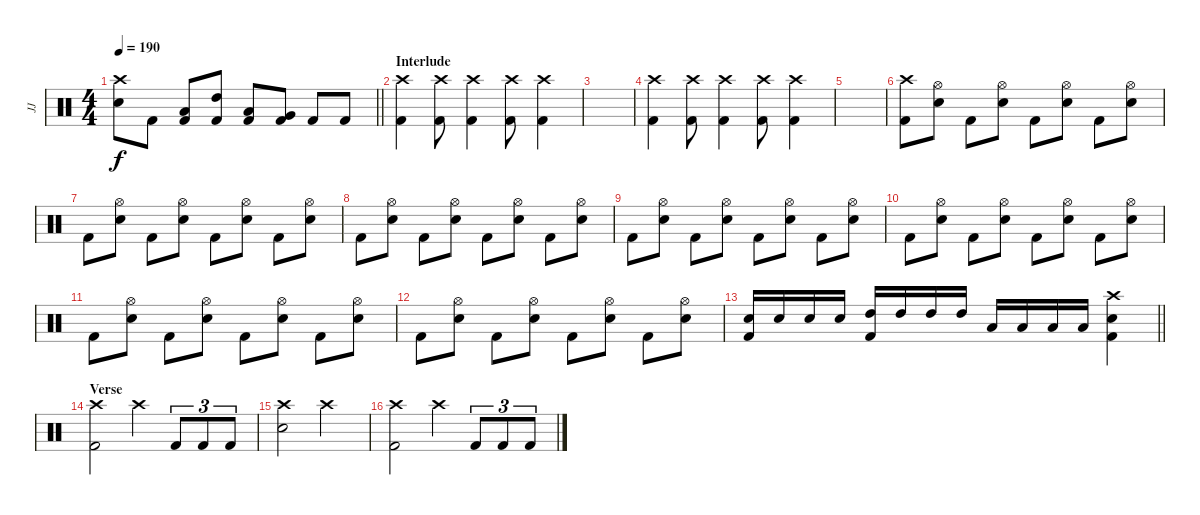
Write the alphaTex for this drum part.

\track ("JJ" "JJ") {instrument percussion}
\staff {score}
\articulation defaults
\ts (4 4)
\tempo 190
\clef neutral
\barLineRight lightlight
\ks c
("Crash high (hit)" "Electric Snare (hit)").8{dy f} "Kick (hit) 2".8 ("Low Floor Tom (hit)" "Kick (hit) 2").8 ("High Tom (hit)" "Kick (hit) 2").8 ("Low Floor Tom (hit)" "Kick (hit) 2").8 ("Very Low Tom (hit)" "Kick (hit) 2").8 "Kick (hit) 2".8 "Kick (hit) 2".8 |
\section ("" "Interlude")
("Crash high (hit)" "Kick (hit) 2").4 ("Crash high (hit)" "Kick (hit) 2").8 ("Crash high (hit)" "Kick (hit) 2").4 ("Crash high (hit)" "Kick (hit) 2").8 ("Crash high (hit)" "Kick (hit) 2").4 |
|
("Crash high (hit)" "Kick (hit) 2").4 ("Crash high (hit)" "Kick (hit) 2").8 ("Crash high (hit)" "Kick (hit) 2").4 ("Crash high (hit)" "Kick (hit) 2").8 ("Crash high (hit)" "Kick (hit) 2").4 |
|
("Crash high (hit)" "Kick (hit) 2").8 ("Hi-Hat (open)" "Electric Snare (hit)").8 "Kick (hit) 2".8 ("Hi-Hat (open)" "Electric Snare (hit)").8 "Kick (hit) 2".8 ("Hi-Hat (open)" "Electric Snare (hit)").8 "Kick (hit) 2".8 ("Hi-Hat (open)" "Electric Snare (hit)").8 |
"Kick (hit) 2".8 ("Hi-Hat (open)" "Electric Snare (hit)").8 "Kick (hit) 2".8 ("Hi-Hat (open)" "Electric Snare (hit)").8 "Kick (hit) 2".8 ("Hi-Hat (open)" "Electric Snare (hit)").8 "Kick (hit) 2".8 ("Hi-Hat (open)" "Electric Snare (hit)").8 |
"Kick (hit) 2".8 ("Hi-Hat (open)" "Electric Snare (hit)").8 "Kick (hit) 2".8 ("Hi-Hat (open)" "Electric Snare (hit)").8 "Kick (hit) 2".8 ("Hi-Hat (open)" "Electric Snare (hit)").8 "Kick (hit) 2".8 ("Hi-Hat (open)" "Electric Snare (hit)").8 |
"Kick (hit) 2".8 ("Hi-Hat (open)" "Electric Snare (hit)").8 "Kick (hit) 2".8 ("Hi-Hat (open)" "Electric Snare (hit)").8 "Kick (hit) 2".8 ("Hi-Hat (open)" "Electric Snare (hit)").8 "Kick (hit) 2".8 ("Hi-Hat (open)" "Electric Snare (hit)").8 |
"Kick (hit) 2".8 ("Hi-Hat (open)" "Electric Snare (hit)").8 "Kick (hit) 2".8 ("Hi-Hat (open)" "Electric Snare (hit)").8 "Kick (hit) 2".8 ("Hi-Hat (open)" "Electric Snare (hit)").8 "Kick (hit) 2".8 ("Hi-Hat (open)" "Electric Snare (hit)").8 |
"Kick (hit) 2".8 ("Hi-Hat (open)" "Electric Snare (hit)").8 "Kick (hit) 2".8 ("Hi-Hat (open)" "Electric Snare (hit)").8 "Kick (hit) 2".8 ("Hi-Hat (open)" "Electric Snare (hit)").8 "Kick (hit) 2".8 ("Hi-Hat (open)" "Electric Snare (hit)").8 |
"Kick (hit) 2".8 ("Hi-Hat (open)" "Electric Snare (hit)").8 "Kick (hit) 2".8 ("Hi-Hat (open)" "Electric Snare (hit)").8 "Kick (hit) 2".8 ("Hi-Hat (open)" "Electric Snare (hit)").8 "Kick (hit) 2".8 ("Hi-Hat (open)" "Electric Snare (hit)").8 |
\barLineRight lightlight
("Electric Snare (hit)" "Kick (hit) 2").16 "Electric Snare (hit)".16 "Electric Snare (hit)".16 "Electric Snare (hit)".16 ("High Tom (hit)" "Kick (hit) 2").16 "High Tom (hit)".16 "High Tom (hit)".16 "High Tom (hit)".16 "Low Floor Tom (hit)".16 "Low Floor Tom (hit)".16 "Low Floor Tom (hit)".16 "Low Floor Tom (hit)".16 ("Crash high (hit)" "Electric Snare (hit)" "Kick (hit) 2").4 |
\section ("" "Verse")
("Crash high (hit)" "Kick (hit) 2").2 "Crash high (hit)".4 "Kick (hit) 2".8{tu (3 2)} "Kick (hit) 2".8{tu (3 2)} "Kick (hit) 2".8{tu (3 2)} |
("Crash high (hit)" "Electric Snare (hit)").2 "Crash high (hit)".2 |
("Crash high (hit)" "Kick (hit) 2").2 "Crash high (hit)".4 "Kick (hit) 2".8{tu (3 2)} "Kick (hit) 2".8{tu (3 2)} "Kick (hit) 2".8{tu (3 2)}
